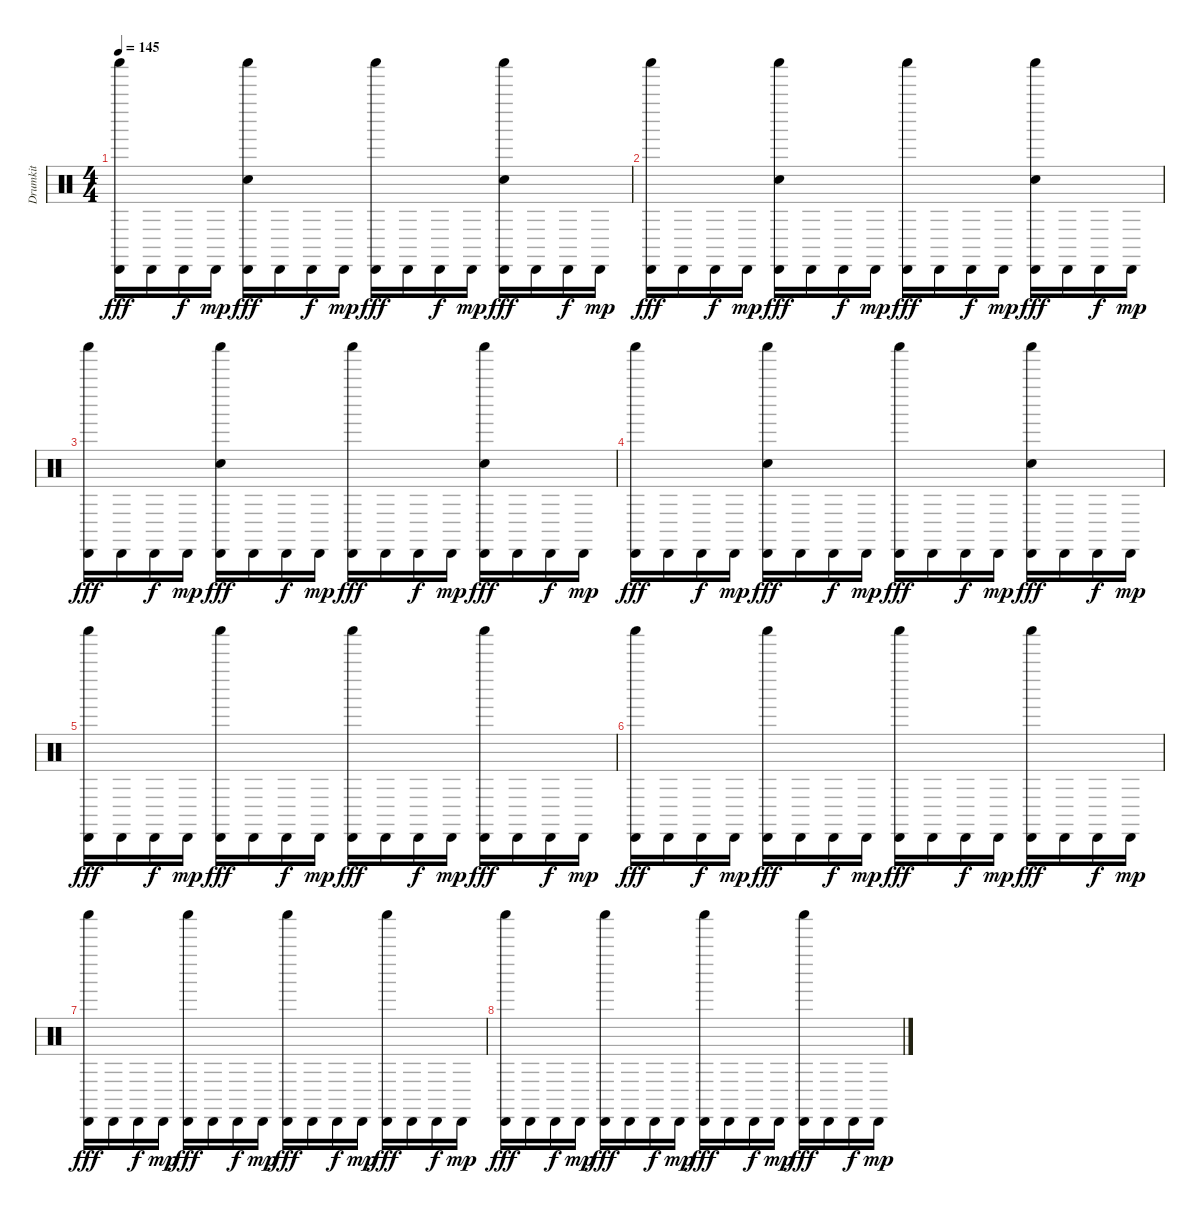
\track ("Drumkit" "Drumkit") {instrument percussion}
\staff {score}
\articulation defaults
\ts (4 4)
\tempo 145
\clef neutral
\ks c
("Shaker (hit)" "Cabasa (hit)").16{dy fff} "Cabasa (hit)".16 "Cabasa (hit)".16{dy f} "Cabasa (hit)".16{dy mp} ("Shaker (hit)" "Snare (hit) 2" "Cabasa (hit)").16{dy fff} "Cabasa (hit)".16 "Cabasa (hit)".16{dy f} "Cabasa (hit)".16{dy mp} ("Shaker (hit)" "Cabasa (hit)").16{dy fff} "Cabasa (hit)".16 "Cabasa (hit)".16{dy f} "Cabasa (hit)".16{dy mp} ("Shaker (hit)" "Snare (hit) 2" "Cabasa (hit)").16{dy fff} "Cabasa (hit)".16 "Cabasa (hit)".16{dy f} "Cabasa (hit)".16{dy mp} |
("Shaker (hit)" "Cabasa (hit)").16{dy fff} "Cabasa (hit)".16 "Cabasa (hit)".16{dy f} "Cabasa (hit)".16{dy mp} ("Shaker (hit)" "Snare (hit) 2" "Cabasa (hit)").16{dy fff} "Cabasa (hit)".16 "Cabasa (hit)".16{dy f} "Cabasa (hit)".16{dy mp} ("Shaker (hit)" "Cabasa (hit)").16{dy fff} "Cabasa (hit)".16 "Cabasa (hit)".16{dy f} "Cabasa (hit)".16{dy mp} ("Shaker (hit)" "Snare (hit) 2" "Cabasa (hit)").16{dy fff} "Cabasa (hit)".16 "Cabasa (hit)".16{dy f} "Cabasa (hit)".16{dy mp} |
("Shaker (hit)" "Cabasa (hit)").16{dy fff} "Cabasa (hit)".16 "Cabasa (hit)".16{dy f} "Cabasa (hit)".16{dy mp} ("Shaker (hit)" "Snare (hit) 2" "Cabasa (hit)").16{dy fff} "Cabasa (hit)".16 "Cabasa (hit)".16{dy f} "Cabasa (hit)".16{dy mp} ("Shaker (hit)" "Cabasa (hit)").16{dy fff} "Cabasa (hit)".16 "Cabasa (hit)".16{dy f} "Cabasa (hit)".16{dy mp} ("Shaker (hit)" "Snare (hit) 2" "Cabasa (hit)").16{dy fff} "Cabasa (hit)".16 "Cabasa (hit)".16{dy f} "Cabasa (hit)".16{dy mp} |
("Shaker (hit)" "Cabasa (hit)").16{dy fff} "Cabasa (hit)".16 "Cabasa (hit)".16{dy f} "Cabasa (hit)".16{dy mp} ("Shaker (hit)" "Snare (hit) 2" "Cabasa (hit)").16{dy fff} "Cabasa (hit)".16 "Cabasa (hit)".16{dy f} "Cabasa (hit)".16{dy mp} ("Shaker (hit)" "Cabasa (hit)").16{dy fff} "Cabasa (hit)".16 "Cabasa (hit)".16{dy f} "Cabasa (hit)".16{dy mp} ("Shaker (hit)" "Snare (hit) 2" "Cabasa (hit)").16{dy fff} "Cabasa (hit)".16 "Cabasa (hit)".16{dy f} "Cabasa (hit)".16{dy mp} |
("Shaker (hit)" "Cabasa (hit)").16{dy fff} "Cabasa (hit)".16 "Cabasa (hit)".16{dy f} "Cabasa (hit)".16{dy mp} ("Shaker (hit)" "Cabasa (hit)").16{dy fff} "Cabasa (hit)".16 "Cabasa (hit)".16{dy f} "Cabasa (hit)".16{dy mp} ("Shaker (hit)" "Cabasa (hit)").16{dy fff} "Cabasa (hit)".16 "Cabasa (hit)".16{dy f} "Cabasa (hit)".16{dy mp} ("Shaker (hit)" "Cabasa (hit)").16{dy fff} "Cabasa (hit)".16 "Cabasa (hit)".16{dy f} "Cabasa (hit)".16{dy mp} |
("Shaker (hit)" "Cabasa (hit)").16{dy fff} "Cabasa (hit)".16 "Cabasa (hit)".16{dy f} "Cabasa (hit)".16{dy mp} ("Shaker (hit)" "Cabasa (hit)").16{dy fff} "Cabasa (hit)".16 "Cabasa (hit)".16{dy f} "Cabasa (hit)".16{dy mp} ("Shaker (hit)" "Cabasa (hit)").16{dy fff} "Cabasa (hit)".16 "Cabasa (hit)".16{dy f} "Cabasa (hit)".16{dy mp} ("Shaker (hit)" "Cabasa (hit)").16{dy fff} "Cabasa (hit)".16 "Cabasa (hit)".16{dy f} "Cabasa (hit)".16{dy mp} |
("Shaker (hit)" "Cabasa (hit)").16{dy fff} "Cabasa (hit)".16 "Cabasa (hit)".16{dy f} "Cabasa (hit)".16{dy mp} ("Shaker (hit)" "Cabasa (hit)").16{dy fff} "Cabasa (hit)".16 "Cabasa (hit)".16{dy f} "Cabasa (hit)".16{dy mp} ("Shaker (hit)" "Cabasa (hit)").16{dy fff} "Cabasa (hit)".16 "Cabasa (hit)".16{dy f} "Cabasa (hit)".16{dy mp} ("Shaker (hit)" "Cabasa (hit)").16{dy fff} "Cabasa (hit)".16 "Cabasa (hit)".16{dy f} "Cabasa (hit)".16{dy mp} |
("Shaker (hit)" "Cabasa (hit)").16{dy fff} "Cabasa (hit)".16 "Cabasa (hit)".16{dy f} "Cabasa (hit)".16{dy mp} ("Shaker (hit)" "Cabasa (hit)").16{dy fff} "Cabasa (hit)".16 "Cabasa (hit)".16{dy f} "Cabasa (hit)".16{dy mp} ("Shaker (hit)" "Cabasa (hit)").16{dy fff} "Cabasa (hit)".16 "Cabasa (hit)".16{dy f} "Cabasa (hit)".16{dy mp} ("Shaker (hit)" "Cabasa (hit)").16{dy fff} "Cabasa (hit)".16 "Cabasa (hit)".16{dy f} "Cabasa (hit)".16{dy mp}
